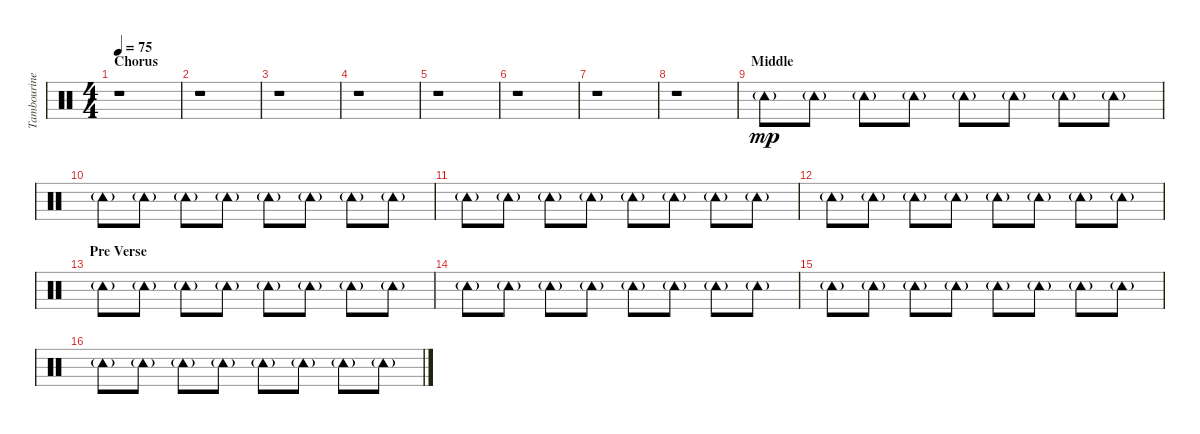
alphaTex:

\track ("Tambourine" "Tambourine") {instrument percussion}
\staff {score}
\articulation defaults
\ts (4 4)
\section ("" "Chorus")
\tempo 75
\clef neutral
\ks c
r.1{dy mp} |
r.1 |
r.1 |
r.1 |
r.1 |
r.1 |
r.1 |
r.1 |
\section ("" "Middle")
"Tambourine (hit)"{g}.8 "Tambourine (hit)"{g}.8 "Tambourine (hit)"{g}.8 "Tambourine (hit)"{g}.8 "Tambourine (hit)"{g}.8 "Tambourine (hit)"{g}.8 "Tambourine (hit)"{g}.8 "Tambourine (hit)"{g}.8 |
"Tambourine (hit)"{g}.8 "Tambourine (hit)"{g}.8 "Tambourine (hit)"{g}.8 "Tambourine (hit)"{g}.8 "Tambourine (hit)"{g}.8 "Tambourine (hit)"{g}.8 "Tambourine (hit)"{g}.8 "Tambourine (hit)"{g}.8 |
"Tambourine (hit)"{g}.8 "Tambourine (hit)"{g}.8 "Tambourine (hit)"{g}.8 "Tambourine (hit)"{g}.8 "Tambourine (hit)"{g}.8 "Tambourine (hit)"{g}.8 "Tambourine (hit)"{g}.8 "Tambourine (hit)"{g}.8 |
"Tambourine (hit)"{g}.8 "Tambourine (hit)"{g}.8 "Tambourine (hit)"{g}.8 "Tambourine (hit)"{g}.8 "Tambourine (hit)"{g}.8 "Tambourine (hit)"{g}.8 "Tambourine (hit)"{g}.8 "Tambourine (hit)"{g}.8 |
\section ("" "Pre Verse")
"Tambourine (hit)"{g}.8 "Tambourine (hit)"{g}.8 "Tambourine (hit)"{g}.8 "Tambourine (hit)"{g}.8 "Tambourine (hit)"{g}.8 "Tambourine (hit)"{g}.8 "Tambourine (hit)"{g}.8 "Tambourine (hit)"{g}.8 |
"Tambourine (hit)"{g}.8 "Tambourine (hit)"{g}.8 "Tambourine (hit)"{g}.8 "Tambourine (hit)"{g}.8 "Tambourine (hit)"{g}.8 "Tambourine (hit)"{g}.8 "Tambourine (hit)"{g}.8 "Tambourine (hit)"{g}.8 |
"Tambourine (hit)"{g}.8 "Tambourine (hit)"{g}.8 "Tambourine (hit)"{g}.8 "Tambourine (hit)"{g}.8 "Tambourine (hit)"{g}.8 "Tambourine (hit)"{g}.8 "Tambourine (hit)"{g}.8 "Tambourine (hit)"{g}.8 |
"Tambourine (hit)"{g}.8 "Tambourine (hit)"{g}.8 "Tambourine (hit)"{g}.8 "Tambourine (hit)"{g}.8 "Tambourine (hit)"{g}.8 "Tambourine (hit)"{g}.8 "Tambourine (hit)"{g}.8 "Tambourine (hit)"{g}.8
